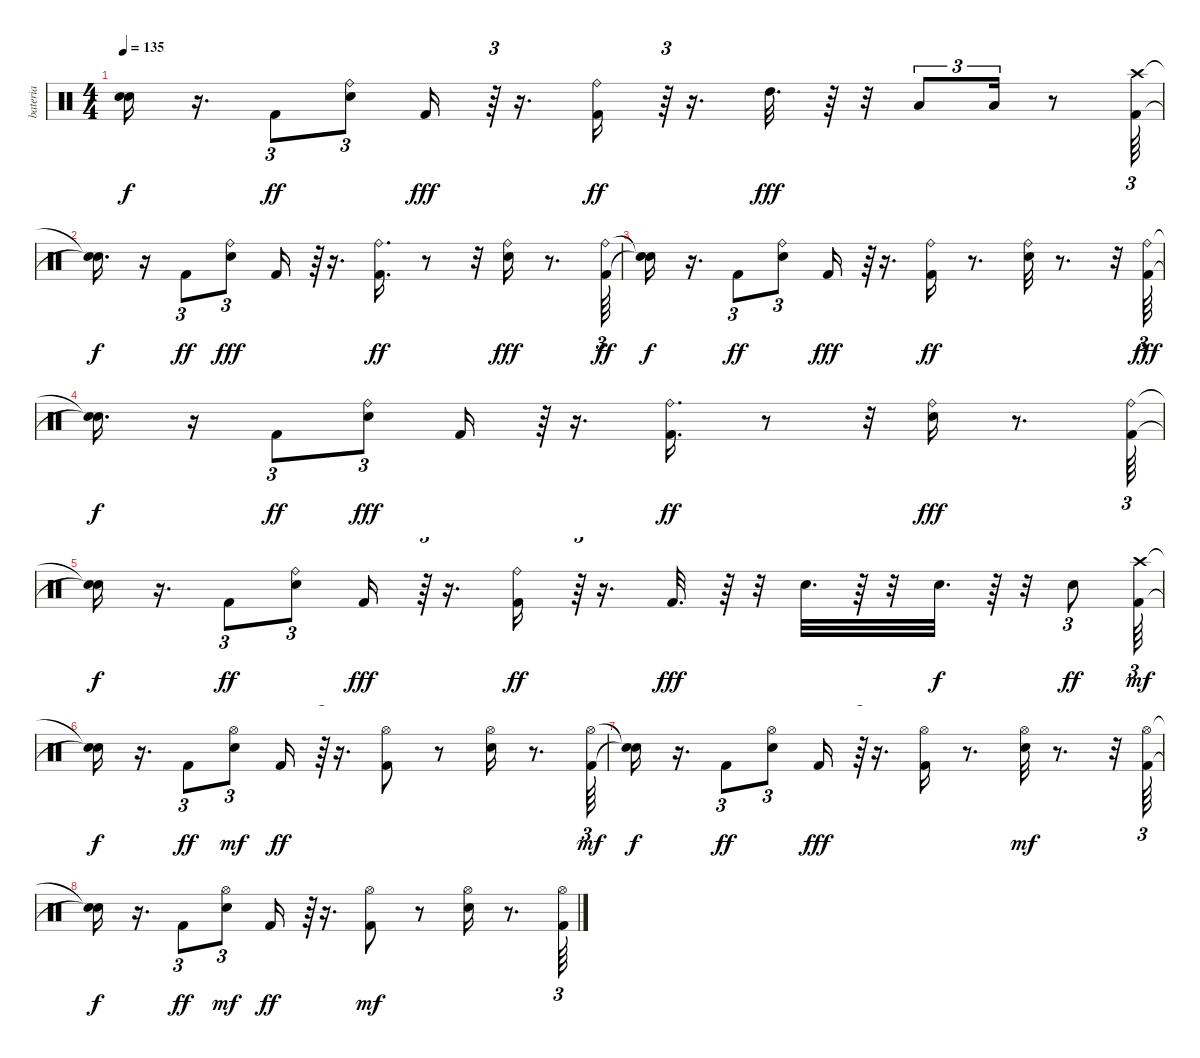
\track ("bateria" "bateria") {instrument percussion}
\staff {score}
\articulation defaults
\ts (4 4)
\tempo 135
\clef neutral
\ks c
("Snare (hit)"{t} "Snare (hit)"{t}).16{dy f} r.16{d} "Kick (hit) 2".8{tu (3 2) dy ff} ("Electric Snare (hit)" "Ride (bell)").8{tu (3 2)} "Kick (hit) 2".16{dy fff} r.64{tu (3 2)} r.16{d} ("Kick (hit) 2" "Ride (bell)").16{dy ff} r.64{tu (3 2)} r.16{d} "High Tom (hit)".32{d dy fff} r.64 r.32 "Low Tom (hit)".8{tu (3 2)} "Low Floor Tom (hit)".16{tu (3 2)} r.8 ("Crash high (hit)" "Kick (hit) 2").64{tu (3 2)} |
("Snare (hit)"{t} "Snare (hit)"{t}).16{d dy f} r.16 "Kick (hit) 2".8{tu (3 2) dy ff} ("Electric Snare (hit)" "Ride (bell)").8{tu (3 2) dy fff} "Kick (hit) 2".16 r.64{tu (3 2)} r.16{d} ("Kick (hit) 2" "Ride (bell)").16{d dy ff} r.8 r.32 ("Electric Snare (hit)" "Ride (bell)").16{dy fff} r.8{d} ("Kick (hit) 2" "Ride (bell)").64{tu (3 2) dy ff} |
("Snare (hit)"{t} "Snare (hit)"{t}).16{dy f} r.16{d} "Kick (hit) 2".8{tu (3 2) dy ff} ("Electric Snare (hit)" "Ride (bell)").8{tu (3 2)} "Kick (hit) 2".16{dy fff} r.64{tu (3 2)} r.16{d} ("Kick (hit) 2" "Ride (bell)").16{dy ff} r.8{d} ("Electric Snare (hit)" "Ride (bell)").32 r.8{d} r.32 ("Ride (bell)" "Kick (hit) 2").64{tu (3 2) dy fff} |
("Snare (hit)"{t} "Snare (hit)"{t}).16{d dy f} r.16 "Kick (hit) 2".8{tu (3 2) dy ff} ("Electric Snare (hit)" "Ride (bell)").8{tu (3 2) dy fff} "Kick (hit) 2".16 r.64{tu (3 2)} r.16{d} ("Ride (bell)" "Kick (hit) 2").16{d dy ff} r.8 r.32 ("Electric Snare (hit)" "Ride (bell)").16{dy fff} r.8{d} ("Ride (bell)" "Kick (hit) 2").64{tu (3 2)} |
("Snare (hit)"{t} "Snare (hit)"{t}).16{dy f} r.16{d} "Kick (hit) 2".8{tu (3 2) dy ff} ("Electric Snare (hit)" "Ride (bell)").8{tu (3 2)} "Kick (hit) 2".16{dy fff} r.64{tu (3 2)} r.16{d} ("Kick (hit) 2" "Ride (bell)").16{dy ff} r.64{tu (3 2)} r.16{d} "Kick (hit) 2".32{d dy fff} r.64 r.32 "Electric Snare (hit)".32{d} r.64 r.32 "Electric Snare (hit)".32{d dy f} r.64 r.32 "Electric Snare (hit)".8{tu (3 2) dy ff} ("Kick (hit) 2" "Crash high (hit)").64{tu (3 2) dy mf} |
("Snare (hit)"{t} "Snare (hit)"{t}).16{dy f} r.16{d} "Kick (hit) 2".8{tu (3 2) dy ff} ("Hi-Hat (open)" "Electric Snare (hit)").8{tu (3 2) dy mf} "Kick (hit) 2".16{dy ff} r.64{tu (3 2)} r.16{d} ("Hi-Hat (open)" "Kick (hit) 2").8 r.8 ("Hi-Hat (open)" "Electric Snare (hit)").16 r.8{d} ("Kick (hit) 2" "Hi-Hat (open)").64{tu (3 2) dy mf} |
("Snare (hit)"{t} "Snare (hit)"{t}).16{dy f} r.16{d} "Kick (hit) 2".8{tu (3 2) dy ff} ("Hi-Hat (open)" "Electric Snare (hit)").8{tu (3 2)} "Kick (hit) 2".16{dy fff} r.64{tu (3 2)} r.16{d} ("Hi-Hat (open)" "Kick (hit) 2").16 r.8{d} ("Electric Snare (hit)" "Hi-Hat (open)").32{dy mf} r.8{d} r.32 ("Kick (hit) 2" "Hi-Hat (open)").64{tu (3 2)} |
("Snare (hit)"{t} "Snare (hit)"{t}).16{dy f} r.16{d} "Kick (hit) 2".8{tu (3 2) dy ff} ("Electric Snare (hit)" "Hi-Hat (open)").8{tu (3 2) dy mf} "Kick (hit) 2".16{dy ff} r.64{tu (3 2)} r.16{d} ("Kick (hit) 2" "Hi-Hat (open)").8{dy mf} r.8 ("Electric Snare (hit)" "Hi-Hat (open)").16 r.8{d} ("Kick (hit) 2" "Hi-Hat (open)").64{tu (3 2)}
